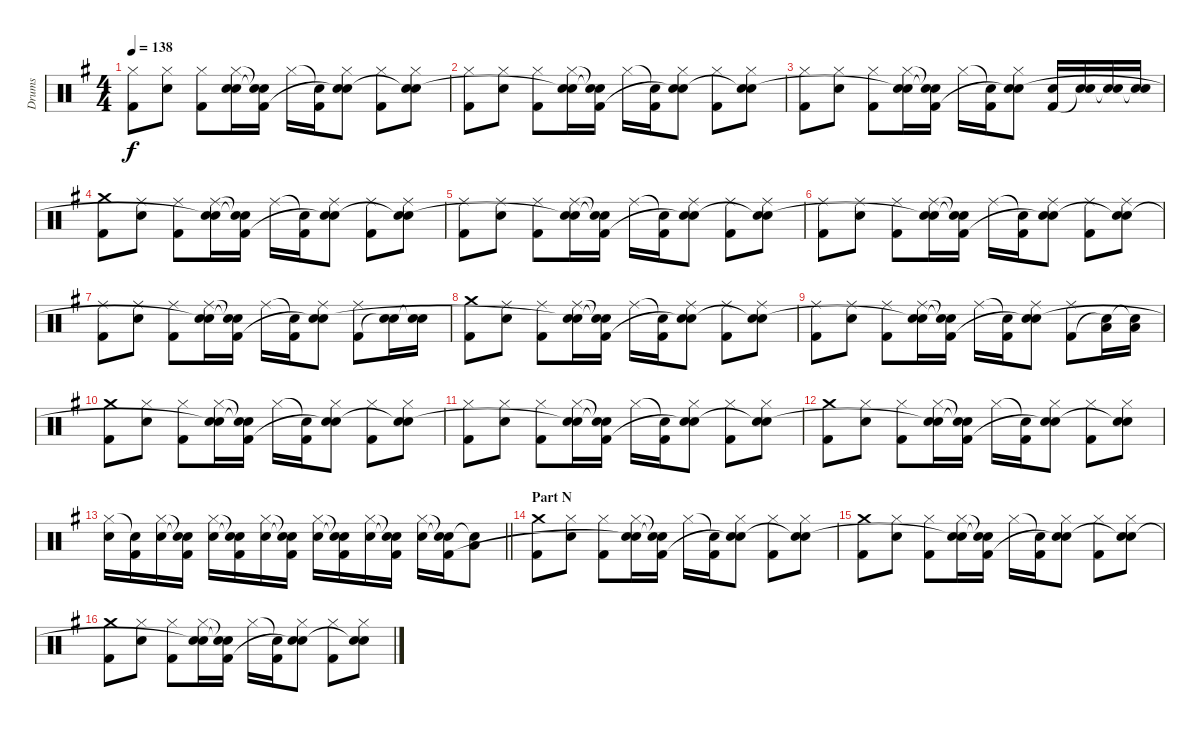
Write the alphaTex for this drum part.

\track ("Drums" "Drums") {instrument percussion}
\staff {score}
\articulation defaults
\ts (4 4)
\tempo 138
\clef neutral
\ks g
("Hi-Hat (closed)" "Kick (hit) 2").8{dy f} ("Hi-Hat (closed)" "Electric Snare (hit)").8 ("Hi-Hat (closed)" "Kick (hit) 2").8 ("Hi-Hat (closed)" "Electric Snare (hit)" "Snare (hit)"{t}).16 ("Snare (hit)"{t} "Snare (hit)"{t} "Kick (hit) 2").16 "Hi-Hat (closed)".16 ("Snare (hit)"{t} "Kick (hit) 2").16 ("Hi-Hat (closed)" "Electric Snare (hit)" "Snare (hit)"{t}).8 ("Hi-Hat (closed)" "Kick (hit) 2").8 ("Hi-Hat (closed)" "Electric Snare (hit)" "Snare (hit)"{t}).8 |
("Hi-Hat (closed)" "Kick (hit) 2").8 ("Hi-Hat (closed)" "Electric Snare (hit)").8 ("Hi-Hat (closed)" "Kick (hit) 2").8 ("Hi-Hat (closed)" "Electric Snare (hit)" "Snare (hit)"{t}).16 ("Snare (hit)"{t} "Snare (hit)"{t} "Kick (hit) 2").16 "Hi-Hat (closed)".16 ("Snare (hit)"{t} "Kick (hit) 2").16 ("Hi-Hat (closed)" "Electric Snare (hit)" "Snare (hit)"{t}).8 ("Hi-Hat (closed)" "Kick (hit) 2").8 ("Hi-Hat (closed)" "Electric Snare (hit)" "Snare (hit)"{t}).8 |
("Hi-Hat (closed)" "Kick (hit) 2").8 ("Hi-Hat (closed)" "Electric Snare (hit)").8 ("Hi-Hat (closed)" "Kick (hit) 2").8 ("Hi-Hat (closed)" "Electric Snare (hit)" "Snare (hit)"{t}).16 ("Snare (hit)"{t} "Snare (hit)"{t} "Kick (hit) 2").16 "Hi-Hat (closed)".16 ("Snare (hit)"{t} "Kick (hit) 2").16 ("Hi-Hat (closed)" "Electric Snare (hit)" "Snare (hit)"{t}).8 ("Electric Snare (hit)" "Kick (hit) 2").16 ("Electric Snare (hit)" "Snare (hit)"{t}).16 ("Electric Snare (hit)" "Snare (hit)"{t}).16 ("Electric Snare (hit)" "Snare (hit)"{t}).16 |
("Crash medium (hit)" "Kick (hit) 2").8 ("Ride (middle)" "Electric Snare (hit)").8 ("Ride (middle)" "Kick (hit) 2").8 ("Ride (middle)" "Electric Snare (hit)" "Snare (hit)"{t}).16 ("Snare (hit)"{t} "Snare (hit)"{t} "Kick (hit) 2").16 "Ride (middle)".16 ("Snare (hit)"{t} "Kick (hit) 2").16 ("Ride (middle)" "Electric Snare (hit)" "Snare (hit)"{t}).8 ("Ride (middle)" "Kick (hit) 2").8 ("Ride (middle)" "Electric Snare (hit)" "Snare (hit)"{t}).8 |
("Ride (middle)" "Kick (hit) 2").8 ("Ride (middle)" "Electric Snare (hit)").8 ("Ride (middle)" "Kick (hit) 2").8 ("Ride (middle)" "Electric Snare (hit)" "Snare (hit)"{t}).16 ("Snare (hit)"{t} "Snare (hit)"{t} "Kick (hit) 2").16 "Ride (middle)".16 ("Snare (hit)"{t} "Kick (hit) 2").16 ("Ride (middle)" "Electric Snare (hit)" "Snare (hit)"{t}).8 ("Ride (middle)" "Kick (hit) 2").8 ("Ride (middle)" "Electric Snare (hit)" "Snare (hit)"{t}).8 |
("Ride (middle)" "Kick (hit) 2").8 ("Ride (middle)" "Electric Snare (hit)").8 ("Ride (middle)" "Kick (hit) 2").8 ("Ride (middle)" "Electric Snare (hit)" "Snare (hit)"{t}).16 ("Snare (hit)"{t} "Snare (hit)"{t} "Kick (hit) 2").16 "Ride (middle)".16 ("Snare (hit)"{t} "Kick (hit) 2").16 ("Ride (middle)" "Electric Snare (hit)" "Snare (hit)"{t}).8 ("Ride (middle)" "Kick (hit) 2").8 ("Ride (middle)" "Electric Snare (hit)" "Snare (hit)"{t}).8 |
("Ride (middle)" "Kick (hit) 2").8 ("Ride (middle)" "Electric Snare (hit)").8 ("Ride (middle)" "Kick (hit) 2").8 ("Ride (middle)" "Electric Snare (hit)" "Snare (hit)"{t}).16 ("Snare (hit)"{t} "Snare (hit)"{t} "Kick (hit) 2").16 "Ride (middle)".16 ("Snare (hit)"{t} "Kick (hit) 2").16 ("Ride (middle)" "Electric Snare (hit)" "Snare (hit)"{t}).8 ("Ride (middle)" "Kick (hit) 2").8 ("Electric Snare (hit)" "Snare (hit)"{t}).16 ("Electric Snare (hit)" "Snare (hit)"{t}).16 |
("Crash medium (hit)" "Kick (hit) 2").8 ("Ride (middle)" "Electric Snare (hit)").8 ("Ride (middle)" "Kick (hit) 2").8 ("Ride (middle)" "Electric Snare (hit)" "Snare (hit)"{t}).16 ("Snare (hit)"{t} "Snare (hit)"{t} "Kick (hit) 2").16 "Ride (middle)".16 ("Snare (hit)"{t} "Kick (hit) 2").16 ("Ride (middle)" "Electric Snare (hit)" "Snare (hit)"{t}).8 ("Ride (middle)" "Kick (hit) 2").8 ("Ride (middle)" "Electric Snare (hit)" "Snare (hit)"{t}).8 |
("Ride (middle)" "Kick (hit) 2").8 ("Ride (middle)" "Electric Snare (hit)").8 ("Ride (middle)" "Kick (hit) 2").8 ("Ride (middle)" "Electric Snare (hit)" "Snare (hit)"{t}).16 ("Snare (hit)"{t} "Snare (hit)"{t} "Kick (hit) 2").16 "Ride (middle)".16 ("Snare (hit)"{t} "Kick (hit) 2").16 ("Ride (middle)" "Electric Snare (hit)" "Snare (hit)"{t}).8 ("Ride (middle)" "Kick (hit) 2").8 ("Low Tom (hit)" "Snare (hit)"{t}).16 ("Low Tom (hit)" "Snare (hit)"{t}).16 |
("Crash medium (hit)" "Kick (hit) 2").8 ("Hi-Hat (closed)" "Electric Snare (hit)").8 ("Hi-Hat (closed)" "Kick (hit) 2").8 ("Hi-Hat (closed)" "Electric Snare (hit)" "Snare (hit)"{t}).16 ("Snare (hit)"{t} "Snare (hit)"{t} "Kick (hit) 2").16 "Hi-Hat (closed)".16 ("Snare (hit)"{t} "Kick (hit) 2").16 ("Hi-Hat (closed)" "Electric Snare (hit)" "Snare (hit)"{t}).8 ("Hi-Hat (closed)" "Kick (hit) 2").8 ("Hi-Hat (closed)" "Electric Snare (hit)" "Snare (hit)"{t}).8 |
("Hi-Hat (closed)" "Kick (hit) 2").8 ("Hi-Hat (closed)" "Electric Snare (hit)").8 ("Hi-Hat (closed)" "Kick (hit) 2").8 ("Hi-Hat (closed)" "Electric Snare (hit)" "Snare (hit)"{t}).16 ("Snare (hit)"{t} "Snare (hit)"{t} "Kick (hit) 2").16 "Hi-Hat (closed)".16 ("Snare (hit)"{t} "Kick (hit) 2").16 ("Hi-Hat (closed)" "Electric Snare (hit)" "Snare (hit)"{t}).8 ("Hi-Hat (closed)" "Kick (hit) 2").8 ("Hi-Hat (closed)" "Electric Snare (hit)" "Snare (hit)"{t}).8 |
("Crash medium (hit)" "Kick (hit) 2").8 ("Hi-Hat (closed)" "Electric Snare (hit)").8 ("Hi-Hat (closed)" "Kick (hit) 2").8 ("Hi-Hat (closed)" "Electric Snare (hit)" "Snare (hit)"{t}).16 ("Snare (hit)"{t} "Snare (hit)"{t} "Kick (hit) 2").16 "Hi-Hat (closed)".16 ("Snare (hit)"{t} "Kick (hit) 2").16 ("Hi-Hat (closed)" "Electric Snare (hit)" "Snare (hit)"{t}).8 ("Hi-Hat (closed)" "Kick (hit) 2").8 ("Hi-Hat (closed)" "Electric Snare (hit)" "Snare (hit)"{t}).8 |
\barLineRight lightlight
("Hi-Hat (closed)" "Electric Snare (hit)").16 ("Snare (hit)"{t} "Kick (hit) 2").16 ("Hi-Hat (closed)" "Electric Snare (hit)").16 ("Snare (hit)"{t} "Snare (hit)"{t} "Kick (hit) 2").16 ("Hi-Hat (closed)" "Electric Snare (hit)").16 ("Snare (hit)"{t} "Snare (hit)"{t} "Kick (hit) 2").16 ("Hi-Hat (closed)" "Electric Snare (hit)").16 ("Snare (hit)"{t} "Snare (hit)"{t} "Kick (hit) 2").16 ("Hi-Hat (closed)" "Electric Snare (hit)").16 ("Snare (hit)"{t} "Snare (hit)"{t} "Kick (hit) 2").16 ("Hi-Hat (closed)" "Electric Snare (hit)").16 ("Snare (hit)"{t} "Snare (hit)"{t} "Kick (hit) 2").16 ("Hi-Hat (closed)" "Electric Snare (hit)").16 ("Snare (hit)"{t} "Snare (hit)"{t} "Kick (hit) 2").16 ("Low Floor Tom (hit)" "Snare (hit)"{t}).8 |
\section ("" "Part N")
("Crash medium (hit)" "Kick (hit) 2").8 ("Hi-Hat (closed)" "Electric Snare (hit)").8 ("Hi-Hat (closed)" "Kick (hit) 2").8 ("Hi-Hat (closed)" "Electric Snare (hit)" "Snare (hit)"{t}).16 ("Snare (hit)"{t} "Snare (hit)"{t} "Kick (hit) 2").16 "Hi-Hat (closed)".16 ("Snare (hit)"{t} "Kick (hit) 2").16 ("Hi-Hat (closed)" "Electric Snare (hit)" "Snare (hit)"{t}).8 ("Hi-Hat (closed)" "Kick (hit) 2").8 ("Hi-Hat (closed)" "Electric Snare (hit)" "Snare (hit)"{t}).8 |
("Crash medium (hit)" "Kick (hit) 2").8 ("Hi-Hat (closed)" "Electric Snare (hit)").8 ("Hi-Hat (closed)" "Kick (hit) 2").8 ("Hi-Hat (closed)" "Electric Snare (hit)" "Snare (hit)"{t}).16 ("Snare (hit)"{t} "Snare (hit)"{t} "Kick (hit) 2").16 "Hi-Hat (closed)".16 ("Snare (hit)"{t} "Kick (hit) 2").16 ("Hi-Hat (closed)" "Electric Snare (hit)" "Snare (hit)"{t}).8 ("Hi-Hat (closed)" "Kick (hit) 2").8 ("Hi-Hat (closed)" "Electric Snare (hit)" "Snare (hit)"{t}).8 |
("Crash medium (hit)" "Kick (hit) 2").8 ("Hi-Hat (closed)" "Electric Snare (hit)").8 ("Hi-Hat (closed)" "Kick (hit) 2").8 ("Hi-Hat (closed)" "Electric Snare (hit)" "Snare (hit)"{t}).16 ("Snare (hit)"{t} "Snare (hit)"{t} "Kick (hit) 2").16 "Hi-Hat (closed)".16 ("Snare (hit)"{t} "Kick (hit) 2").16 ("Hi-Hat (closed)" "Electric Snare (hit)" "Snare (hit)"{t}).8 ("Hi-Hat (closed)" "Kick (hit) 2").8 ("Hi-Hat (closed)" "Electric Snare (hit)" "Snare (hit)"{t}).8
